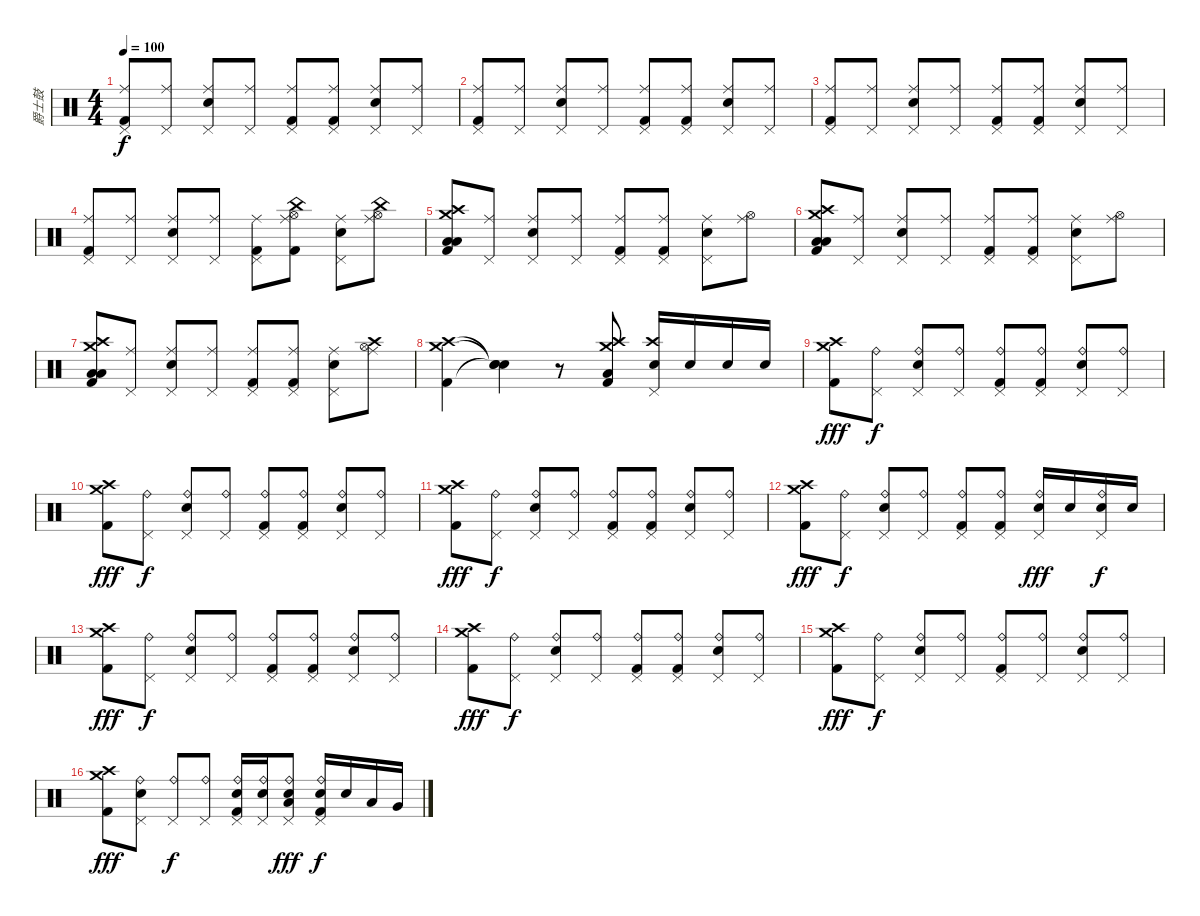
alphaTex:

\track ("爵士鼓" "爵士鼓") {instrument percussion}
\staff {score}
\articulation defaults
\ts (4 4)
\tempo 100
\clef neutral
\ks c
("Pedal Hi-Hat (hit)" "Ride (middle)" "Kick (hit) 2").8{dy f} ("Pedal Hi-Hat (hit)" "Ride (middle)").8 ("Pedal Hi-Hat (hit)" "Ride (middle)" "Snare (hit) 2").8 ("Pedal Hi-Hat (hit)" "Ride (middle)").8 ("Pedal Hi-Hat (hit)" "Ride (middle)" "Kick (hit) 2").8 ("Pedal Hi-Hat (hit)" "Ride (middle)" "Kick (hit) 2").8 ("Pedal Hi-Hat (hit)" "Ride (middle)" "Snare (hit) 2").8 ("Pedal Hi-Hat (hit)" "Ride (middle)").8 |
("Pedal Hi-Hat (hit)" "Ride (middle)" "Kick (hit) 2").8 ("Pedal Hi-Hat (hit)" "Ride (middle)").8 ("Pedal Hi-Hat (hit)" "Ride (middle)" "Snare (hit) 2").8 ("Pedal Hi-Hat (hit)" "Ride (middle)").8 ("Pedal Hi-Hat (hit)" "Ride (middle)" "Kick (hit) 2").8 ("Pedal Hi-Hat (hit)" "Ride (middle)" "Kick (hit) 2").8 ("Pedal Hi-Hat (hit)" "Ride (middle)" "Snare (hit) 2").8 ("Pedal Hi-Hat (hit)" "Ride (middle)").8 |
("Pedal Hi-Hat (hit)" "Ride (middle)" "Kick (hit) 2").8 ("Pedal Hi-Hat (hit)" "Ride (middle)").8 ("Pedal Hi-Hat (hit)" "Ride (middle)" "Snare (hit) 2").8 ("Pedal Hi-Hat (hit)" "Ride (middle)").8 ("Pedal Hi-Hat (hit)" "Ride (middle)" "Kick (hit) 2").8 ("Pedal Hi-Hat (hit)" "Ride (middle)" "Kick (hit) 2").8 ("Pedal Hi-Hat (hit)" "Ride (middle)" "Snare (hit) 2").8 ("Pedal Hi-Hat (hit)" "Ride (middle)").8 |
("Pedal Hi-Hat (hit)" "Ride (middle)" "Kick (hit) 2").8 ("Pedal Hi-Hat (hit)" "Ride (middle)").8 ("Pedal Hi-Hat (hit)" "Ride (middle)" "Snare (hit) 2").8 ("Pedal Hi-Hat (hit)" "Ride (middle)").8 ("Pedal Hi-Hat (hit)" "Ride (middle)" "Kick (hit) 2").8 ("Hi-Hat (open)" "Ride (middle)" "China (hit)" "Kick (hit) 2").8 ("Pedal Hi-Hat (hit)" "Ride (middle)" "Snare (hit) 2").8 ("Hi-Hat (open)" "Ride (middle)" "China (hit)").8 |
("Crash high (hit)" "Crash medium (hit)" "Low Tom (hit)" "Low Tom (hit)" "Kick (hit) 2").8 ("Pedal Hi-Hat (hit)" "Ride (middle)").8 ("Pedal Hi-Hat (hit)" "Ride (middle)" "Snare (hit) 2").8 ("Pedal Hi-Hat (hit)" "Ride (middle)").8 ("Pedal Hi-Hat (hit)" "Ride (middle)" "Kick (hit) 2").8 ("Pedal Hi-Hat (hit)" "Ride (middle)" "Kick (hit) 2").8 ("Pedal Hi-Hat (hit)" "Ride (middle)" "Snare (hit) 2").8 ("Hi-Hat (open)" "Ride (middle)").8 |
("Crash high (hit)" "Crash medium (hit)" "Low Tom (hit)" "Low Tom (hit)" "Kick (hit) 2").8 ("Pedal Hi-Hat (hit)" "Ride (middle)").8 ("Pedal Hi-Hat (hit)" "Ride (middle)" "Snare (hit) 2").8 ("Pedal Hi-Hat (hit)" "Ride (middle)").8 ("Pedal Hi-Hat (hit)" "Ride (middle)" "Kick (hit) 2").8 ("Pedal Hi-Hat (hit)" "Ride (middle)" "Kick (hit) 2").8 ("Pedal Hi-Hat (hit)" "Ride (middle)" "Snare (hit) 2").8 ("Hi-Hat (open)" "Ride (middle)").8 |
("Crash high (hit)" "Crash medium (hit)" "Low Tom (hit)" "Low Tom (hit)" "Kick (hit) 2").8 ("Pedal Hi-Hat (hit)" "Ride (middle)").8 ("Pedal Hi-Hat (hit)" "Ride (middle)" "Snare (hit) 2").8 ("Pedal Hi-Hat (hit)" "Ride (middle)").8 ("Pedal Hi-Hat (hit)" "Ride (middle)" "Kick (hit) 2").8 ("Pedal Hi-Hat (hit)" "Ride (middle)" "Kick (hit) 2").8 ("Pedal Hi-Hat (hit)" "Ride (middle)" "Snare (hit) 2").8 ("Hi-Hat (open)" "Ride (middle)" "Crash high (hit)").8 |
("Crash high (hit)" "Crash medium (hit)" "Kick (hit) 2").4 ("Snare (hit)"{t} "Snare (hit)"{t} "Snare (hit)"{t}).4 r.8 ("Crash high (hit)" "Crash medium (hit)" "Low Tom (hit)" "Kick (hit) 2").8 ("Pedal Hi-Hat (hit)" "Crash high (hit)" "Electric Snare (hit)").16 "Electric Snare (hit)".16 "Electric Snare (hit)".16 "Electric Snare (hit)".16 |
("Crash high (hit)" "Crash medium (hit)" "Kick (hit) 2").8{dy fff} ("Ride (bell)" "Pedal Hi-Hat (hit)").8{dy f} ("Ride (bell)" "Pedal Hi-Hat (hit)" "Snare (hit) 2").8 ("Ride (bell)" "Pedal Hi-Hat (hit)").8 ("Ride (bell)" "Pedal Hi-Hat (hit)" "Kick (hit) 2").8 ("Ride (bell)" "Pedal Hi-Hat (hit)" "Kick (hit) 2").8 ("Ride (bell)" "Pedal Hi-Hat (hit)" "Snare (hit) 2").8 ("Ride (bell)" "Pedal Hi-Hat (hit)").8 |
("Crash high (hit)" "Crash medium (hit)" "Kick (hit) 2").8{dy fff} ("Ride (bell)" "Pedal Hi-Hat (hit)").8{dy f} ("Ride (bell)" "Pedal Hi-Hat (hit)" "Snare (hit) 2").8 ("Ride (bell)" "Pedal Hi-Hat (hit)").8 ("Ride (bell)" "Pedal Hi-Hat (hit)" "Kick (hit) 2").8 ("Ride (bell)" "Pedal Hi-Hat (hit)" "Kick (hit) 2").8 ("Ride (bell)" "Pedal Hi-Hat (hit)" "Snare (hit) 2").8 ("Ride (bell)" "Pedal Hi-Hat (hit)").8 |
("Crash high (hit)" "Crash medium (hit)" "Kick (hit) 2").8{dy fff} ("Ride (bell)" "Pedal Hi-Hat (hit)").8{dy f} ("Ride (bell)" "Pedal Hi-Hat (hit)" "Snare (hit) 2").8 ("Ride (bell)" "Pedal Hi-Hat (hit)").8 ("Ride (bell)" "Pedal Hi-Hat (hit)" "Kick (hit) 2").8 ("Ride (bell)" "Pedal Hi-Hat (hit)" "Kick (hit) 2").8 ("Ride (bell)" "Pedal Hi-Hat (hit)" "Snare (hit) 2").8 ("Ride (bell)" "Pedal Hi-Hat (hit)").8 |
("Crash high (hit)" "Crash medium (hit)" "Kick (hit) 2").8{dy fff} ("Ride (bell)" "Pedal Hi-Hat (hit)").8{dy f} ("Ride (bell)" "Pedal Hi-Hat (hit)" "Snare (hit) 2").8 ("Ride (bell)" "Pedal Hi-Hat (hit)").8 ("Ride (bell)" "Pedal Hi-Hat (hit)" "Kick (hit) 2").8 ("Ride (bell)" "Pedal Hi-Hat (hit)" "Kick (hit) 2").8 ("Ride (bell)" "Pedal Hi-Hat (hit)" "Electric Snare (hit)").16{dy fff} "Electric Snare (hit)".16 ("Ride (bell)" "Pedal Hi-Hat (hit)" "Electric Snare (hit)").16{dy f} "Electric Snare (hit)".16 |
("Crash high (hit)" "Crash medium (hit)" "Kick (hit) 2").8{dy fff} ("Ride (bell)" "Pedal Hi-Hat (hit)").8{dy f} ("Ride (bell)" "Pedal Hi-Hat (hit)" "Snare (hit) 2").8 ("Ride (bell)" "Pedal Hi-Hat (hit)").8 ("Ride (bell)" "Pedal Hi-Hat (hit)" "Kick (hit) 2").8 ("Ride (bell)" "Pedal Hi-Hat (hit)" "Kick (hit) 2").8 ("Ride (bell)" "Pedal Hi-Hat (hit)" "Snare (hit) 2").8 ("Ride (bell)" "Pedal Hi-Hat (hit)").8 |
("Crash high (hit)" "Crash medium (hit)" "Kick (hit) 2").8{dy fff} ("Ride (bell)" "Pedal Hi-Hat (hit)").8{dy f} ("Ride (bell)" "Pedal Hi-Hat (hit)" "Snare (hit) 2").8 ("Ride (bell)" "Pedal Hi-Hat (hit)").8 ("Ride (bell)" "Pedal Hi-Hat (hit)" "Kick (hit) 2").8 ("Ride (bell)" "Pedal Hi-Hat (hit)" "Kick (hit) 2").8 ("Ride (bell)" "Pedal Hi-Hat (hit)" "Snare (hit) 2").8 ("Ride (bell)" "Pedal Hi-Hat (hit)").8 |
("Crash high (hit)" "Crash medium (hit)" "Kick (hit) 2").8{dy fff} ("Ride (bell)" "Pedal Hi-Hat (hit)").8{dy f} ("Ride (bell)" "Pedal Hi-Hat (hit)" "Snare (hit) 2").8 ("Ride (bell)" "Pedal Hi-Hat (hit)").8 ("Ride (bell)" "Pedal Hi-Hat (hit)" "Kick (hit) 2").8 ("Ride (bell)" "Pedal Hi-Hat (hit)").8 ("Ride (bell)" "Pedal Hi-Hat (hit)" "Snare (hit) 2").8 ("Ride (bell)" "Pedal Hi-Hat (hit)").8 |
("Crash high (hit)" "Crash medium (hit)" "Kick (hit) 2").8{dy fff} ("Ride (bell)" "Pedal Hi-Hat (hit)" "Snare (hit) 2").8 ("Ride (bell)" "Pedal Hi-Hat (hit)").8{dy f} ("Ride (bell)" "Pedal Hi-Hat (hit)").8 ("Ride (bell)" "Pedal Hi-Hat (hit)" "Electric Snare (hit)" "Kick (hit) 2").16 ("Ride (bell)" "Pedal Hi-Hat (hit)" "Electric Snare (hit)").16 ("Ride (bell)" "Pedal Hi-Hat (hit)" "Electric Snare (hit)" "Low Tom (hit)").8{dy fff} ("Ride (bell)" "Pedal Hi-Hat (hit)" "Electric Snare (hit)" "Kick (hit) 2").16{dy f} "Electric Snare (hit)".16 "Low Tom (hit)".16 "Very Low Tom (hit)".16
